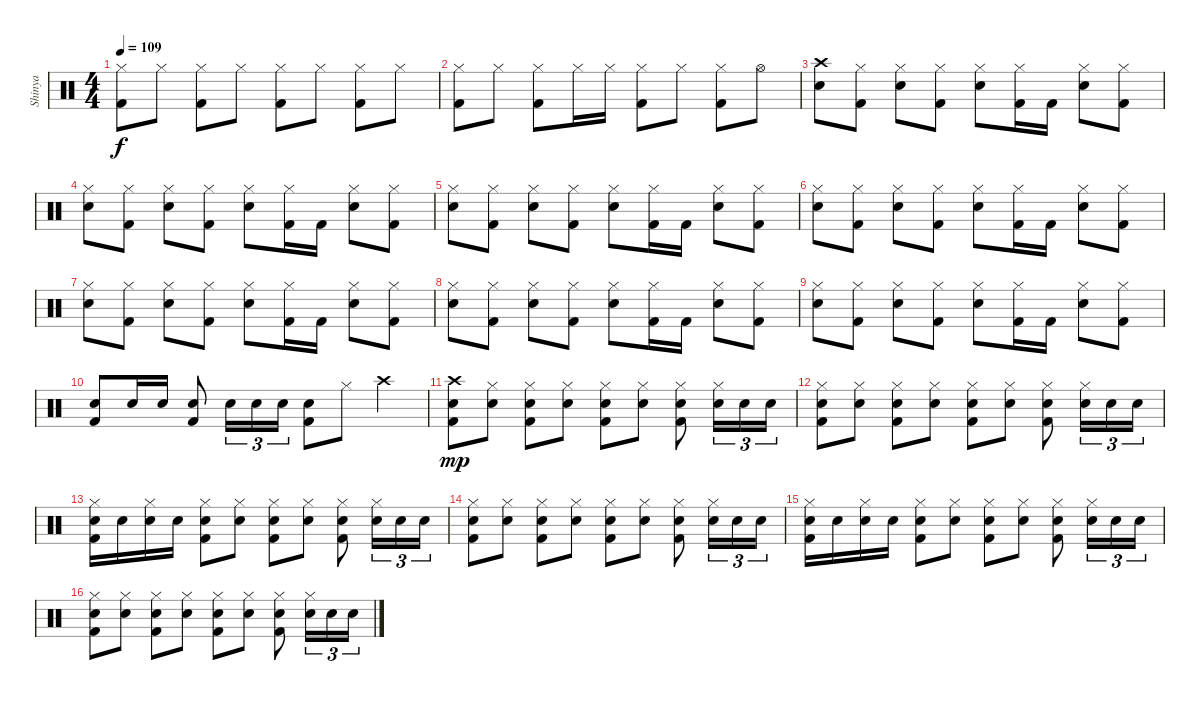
\track ("Shinya" "Shinya") {instrument percussion}
\staff {score}
\articulation defaults
\ts (4 4)
\tempo 109
\clef neutral
\ks c
("Hi-Hat (closed)" "Kick (hit) 2").8{dy f} "Hi-Hat (closed)".8 ("Hi-Hat (closed)" "Kick (hit) 2").8 "Hi-Hat (closed)".8 ("Hi-Hat (closed)" "Kick (hit) 2").8 "Hi-Hat (closed)".8 ("Hi-Hat (closed)" "Kick (hit) 2").8 "Hi-Hat (closed)".8 |
("Hi-Hat (closed)" "Kick (hit) 2").8 "Hi-Hat (closed)".8 ("Hi-Hat (closed)" "Kick (hit) 2").8 "Hi-Hat (closed)".16 "Hi-Hat (closed)".16 ("Hi-Hat (closed)" "Kick (hit) 2").8 "Hi-Hat (closed)".8 ("Hi-Hat (closed)" "Kick (hit) 2").8 "Hi-Hat (open)".8 |
("Crash high (hit)" "Snare (hit) 2").8 ("Hi-Hat (closed)" "Kick (hit) 2").8 ("Hi-Hat (closed)" "Snare (hit) 2").8 ("Hi-Hat (closed)" "Kick (hit) 2").8 ("Hi-Hat (closed)" "Snare (hit) 2").8 ("Hi-Hat (closed)" "Kick (hit) 2").16 "Kick (hit) 2".16 ("Hi-Hat (closed)" "Snare (hit) 2").8 ("Hi-Hat (closed)" "Kick (hit) 2").8 |
("Hi-Hat (closed)" "Snare (hit) 2").8 ("Hi-Hat (closed)" "Kick (hit) 2").8 ("Hi-Hat (closed)" "Snare (hit) 2").8 ("Hi-Hat (closed)" "Kick (hit) 2").8 ("Hi-Hat (closed)" "Snare (hit) 2").8 ("Hi-Hat (closed)" "Kick (hit) 2").16 "Kick (hit) 2".16 ("Hi-Hat (closed)" "Snare (hit) 2").8 ("Hi-Hat (closed)" "Kick (hit) 2").8 |
("Hi-Hat (closed)" "Snare (hit) 2").8 ("Hi-Hat (closed)" "Kick (hit) 2").8 ("Hi-Hat (closed)" "Snare (hit) 2").8 ("Hi-Hat (closed)" "Kick (hit) 2").8 ("Hi-Hat (closed)" "Snare (hit) 2").8 ("Hi-Hat (closed)" "Kick (hit) 2").16 "Kick (hit) 2".16 ("Hi-Hat (closed)" "Snare (hit) 2").8 ("Hi-Hat (closed)" "Kick (hit) 2").8 |
("Hi-Hat (closed)" "Snare (hit) 2").8 ("Hi-Hat (closed)" "Kick (hit) 2").8 ("Hi-Hat (closed)" "Snare (hit) 2").8 ("Hi-Hat (closed)" "Kick (hit) 2").8 ("Hi-Hat (closed)" "Snare (hit) 2").8 ("Hi-Hat (closed)" "Kick (hit) 2").16 "Kick (hit) 2".16 ("Hi-Hat (closed)" "Snare (hit) 2").8 ("Hi-Hat (closed)" "Kick (hit) 2").8 |
("Hi-Hat (closed)" "Snare (hit) 2").8 ("Hi-Hat (closed)" "Kick (hit) 2").8 ("Hi-Hat (closed)" "Snare (hit) 2").8 ("Hi-Hat (closed)" "Kick (hit) 2").8 ("Hi-Hat (closed)" "Snare (hit) 2").8 ("Hi-Hat (closed)" "Kick (hit) 2").16 "Kick (hit) 2".16 ("Hi-Hat (closed)" "Snare (hit) 2").8 ("Hi-Hat (closed)" "Kick (hit) 2").8 |
("Hi-Hat (closed)" "Snare (hit) 2").8 ("Hi-Hat (closed)" "Kick (hit) 2").8 ("Hi-Hat (closed)" "Snare (hit) 2").8 ("Hi-Hat (closed)" "Kick (hit) 2").8 ("Hi-Hat (closed)" "Snare (hit) 2").8 ("Hi-Hat (closed)" "Kick (hit) 2").16 "Kick (hit) 2".16 ("Hi-Hat (closed)" "Snare (hit) 2").8 ("Hi-Hat (closed)" "Kick (hit) 2").8 |
("Hi-Hat (closed)" "Snare (hit) 2").8 ("Hi-Hat (closed)" "Kick (hit) 2").8 ("Hi-Hat (closed)" "Snare (hit) 2").8 ("Hi-Hat (closed)" "Kick (hit) 2").8 ("Hi-Hat (closed)" "Snare (hit) 2").8 ("Hi-Hat (closed)" "Kick (hit) 2").16 "Kick (hit) 2".16 ("Hi-Hat (closed)" "Snare (hit) 2").8 ("Hi-Hat (closed)" "Kick (hit) 2").8 |
("Snare (hit) 2" "Kick (hit) 2").8 "Snare (hit) 2".16 "Snare (hit) 2".16 ("Snare (hit) 2" "Kick (hit) 2").8 "Snare (hit) 2".16{tu (3 2)} "Snare (hit) 2".16{tu (3 2)} "Snare (hit) 2".16{tu (3 2)} ("Snare (hit) 2" "Kick (hit) 2").8 "Hi-Hat (closed)".8 "Crash high (hit)".4 |
("Crash high (hit)" "Snare (hit) 2" "Kick (hit) 2").8{dy mp} ("Hi-Hat (closed)" "Snare (hit) 2").8 ("Hi-Hat (closed)" "Snare (hit) 2" "Kick (hit) 2").8 ("Hi-Hat (closed)" "Snare (hit) 2").8 ("Hi-Hat (closed)" "Snare (hit) 2" "Kick (hit) 2").8 ("Hi-Hat (closed)" "Snare (hit) 2").8 ("Hi-Hat (closed)" "Snare (hit) 2" "Kick (hit) 2").8 ("Hi-Hat (closed)" "Snare (hit) 2").16{tu (3 2)} "Snare (hit) 2".16{tu (3 2)} "Snare (hit) 2".16{tu (3 2)} |
("Hi-Hat (closed)" "Snare (hit) 2" "Kick (hit) 2").8 ("Hi-Hat (closed)" "Snare (hit) 2").8 ("Hi-Hat (closed)" "Snare (hit) 2" "Kick (hit) 2").8 ("Hi-Hat (closed)" "Snare (hit) 2").8 ("Hi-Hat (closed)" "Snare (hit) 2" "Kick (hit) 2").8 ("Hi-Hat (closed)" "Snare (hit) 2").8 ("Hi-Hat (closed)" "Snare (hit) 2" "Kick (hit) 2").8 ("Hi-Hat (closed)" "Snare (hit) 2").16{tu (3 2)} "Snare (hit) 2".16{tu (3 2)} "Snare (hit) 2".16{tu (3 2)} |
("Hi-Hat (closed)" "Snare (hit) 2" "Kick (hit) 2").16 "Snare (hit) 2".16 ("Hi-Hat (closed)" "Snare (hit) 2").16 "Snare (hit) 2".16 ("Hi-Hat (closed)" "Snare (hit) 2" "Kick (hit) 2").8 ("Hi-Hat (closed)" "Snare (hit) 2").8 ("Hi-Hat (closed)" "Snare (hit) 2" "Kick (hit) 2").8 ("Hi-Hat (closed)" "Snare (hit) 2").8 ("Hi-Hat (closed)" "Snare (hit) 2" "Kick (hit) 2").8 ("Hi-Hat (closed)" "Snare (hit) 2").16{tu (3 2)} "Snare (hit) 2".16{tu (3 2)} "Snare (hit) 2".16{tu (3 2)} |
("Hi-Hat (closed)" "Snare (hit) 2" "Kick (hit) 2").8 ("Hi-Hat (closed)" "Snare (hit) 2").8 ("Hi-Hat (closed)" "Snare (hit) 2" "Kick (hit) 2").8 ("Hi-Hat (closed)" "Snare (hit) 2").8 ("Hi-Hat (closed)" "Snare (hit) 2" "Kick (hit) 2").8 ("Hi-Hat (closed)" "Snare (hit) 2").8 ("Hi-Hat (closed)" "Snare (hit) 2" "Kick (hit) 2").8 ("Hi-Hat (closed)" "Snare (hit) 2").16{tu (3 2)} "Snare (hit) 2".16{tu (3 2)} "Snare (hit) 2".16{tu (3 2)} |
("Hi-Hat (closed)" "Snare (hit) 2" "Kick (hit) 2").16 "Snare (hit) 2".16 ("Hi-Hat (closed)" "Snare (hit) 2").16 "Snare (hit) 2".16 ("Hi-Hat (closed)" "Snare (hit) 2" "Kick (hit) 2").8 ("Hi-Hat (closed)" "Snare (hit) 2").8 ("Hi-Hat (closed)" "Snare (hit) 2" "Kick (hit) 2").8 ("Hi-Hat (closed)" "Snare (hit) 2").8 ("Hi-Hat (closed)" "Snare (hit) 2" "Kick (hit) 2").8 ("Hi-Hat (closed)" "Snare (hit) 2").16{tu (3 2)} "Snare (hit) 2".16{tu (3 2)} "Snare (hit) 2".16{tu (3 2)} |
("Hi-Hat (closed)" "Snare (hit) 2" "Kick (hit) 2").8 ("Hi-Hat (closed)" "Snare (hit) 2").8 ("Hi-Hat (closed)" "Snare (hit) 2" "Kick (hit) 2").8 ("Hi-Hat (closed)" "Snare (hit) 2").8 ("Hi-Hat (closed)" "Snare (hit) 2" "Kick (hit) 2").8 ("Hi-Hat (closed)" "Snare (hit) 2").8 ("Hi-Hat (closed)" "Snare (hit) 2" "Kick (hit) 2").8 ("Hi-Hat (closed)" "Snare (hit) 2").16{tu (3 2)} "Snare (hit) 2".16{tu (3 2)} "Snare (hit) 2".16{tu (3 2)}
